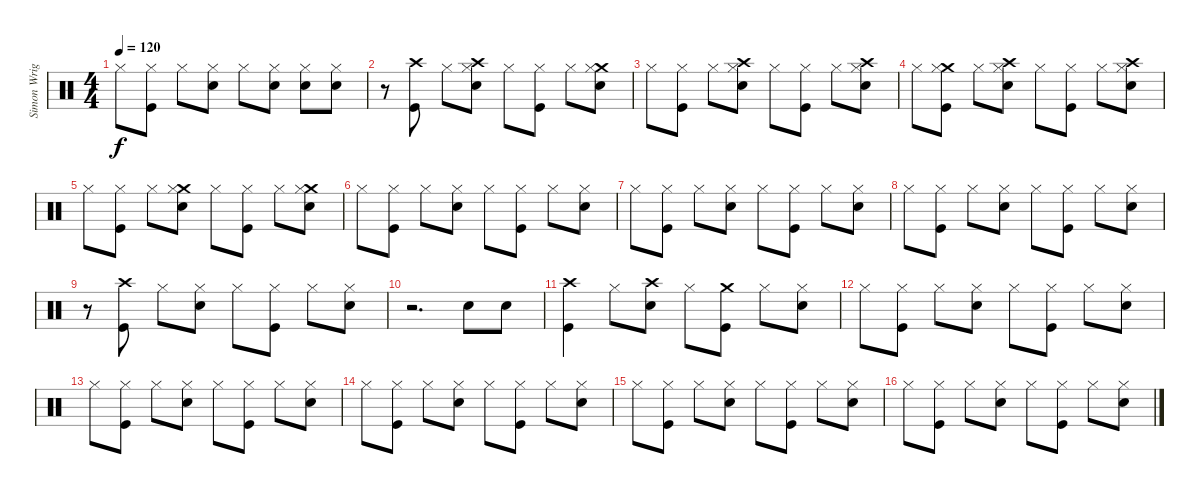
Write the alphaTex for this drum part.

\track ("Simon Wright" "Simon Wrig") {instrument percussion}
\staff {score}
\articulation defaults
\ts (4 4)
\tempo 120
\clef neutral
\ks c "Hi-Hat (closed)".8{dy f}
("Hi-Hat (closed)" "Kick (hit)").8 "Hi-Hat (closed)".8 ("Hi-Hat (closed)" "Electric Snare (hit)").8 "Hi-Hat (closed)".8 ("Hi-Hat (closed)" "Electric Snare (hit)").8 ("Hi-Hat (closed)" "Electric Snare (hit)").8 ("Hi-Hat (closed)" "Electric Snare (hit)").8 |
r.8 ("Crash high (hit)" "Kick (hit)").8 "Hi-Hat (closed)".8 ("Crash high (hit)" "Hi-Hat (closed)" "Electric Snare (hit)").8 "Hi-Hat (closed)".8 ("Hi-Hat (closed)" "Kick (hit)").8 "Hi-Hat (closed)".8 ("Crash medium (hit)" "Hi-Hat (closed)" "Electric Snare (hit)").8 |
"Hi-Hat (closed)".8 ("Hi-Hat (closed)" "Kick (hit)").8 "Hi-Hat (closed)".8 ("Crash high (hit)" "Hi-Hat (closed)" "Electric Snare (hit)").8 "Hi-Hat (closed)".8 ("Hi-Hat (closed)" "Kick (hit)").8 "Hi-Hat (closed)".8 ("Crash high (hit)" "Hi-Hat (closed)" "Electric Snare (hit)").8 |
"Hi-Hat (closed)".8 ("Crash medium (hit)" "Hi-Hat (closed)" "Kick (hit)").8 "Hi-Hat (closed)".8 ("Crash high (hit)" "Hi-Hat (closed)" "Electric Snare (hit)").8 "Hi-Hat (closed)".8 ("Hi-Hat (closed)" "Kick (hit)").8 "Hi-Hat (closed)".8 ("Crash high (hit)" "Hi-Hat (closed)" "Electric Snare (hit)").8 |
"Hi-Hat (closed)".8 ("Hi-Hat (closed)" "Kick (hit)").8 "Hi-Hat (closed)".8 ("Crash medium (hit)" "Hi-Hat (closed)" "Electric Snare (hit)").8 "Hi-Hat (closed)".8 ("Hi-Hat (closed)" "Kick (hit)").8 "Hi-Hat (closed)".8 ("Crash medium (hit)" "Hi-Hat (closed)" "Electric Snare (hit)").8 |
"Hi-Hat (closed)".8 ("Hi-Hat (closed)" "Kick (hit)").8 "Hi-Hat (closed)".8 ("Hi-Hat (closed)" "Electric Snare (hit)").8 "Hi-Hat (closed)".8 ("Hi-Hat (closed)" "Kick (hit)").8 "Hi-Hat (closed)".8 ("Hi-Hat (closed)" "Electric Snare (hit)").8 |
"Hi-Hat (closed)".8 ("Hi-Hat (closed)" "Kick (hit)").8 "Hi-Hat (closed)".8 ("Hi-Hat (closed)" "Electric Snare (hit)").8 "Hi-Hat (closed)".8 ("Hi-Hat (closed)" "Kick (hit)").8 "Hi-Hat (closed)".8 ("Hi-Hat (closed)" "Electric Snare (hit)").8 |
"Hi-Hat (closed)".8 ("Hi-Hat (closed)" "Kick (hit)").8 "Hi-Hat (closed)".8 ("Hi-Hat (closed)" "Electric Snare (hit)").8 "Hi-Hat (closed)".8 ("Hi-Hat (closed)" "Kick (hit)").8 "Hi-Hat (closed)".8 ("Hi-Hat (closed)" "Electric Snare (hit)").8 |
r.8 ("Crash high (hit)" "Kick (hit)").8 "Hi-Hat (closed)".8 ("Hi-Hat (closed)" "Electric Snare (hit)").8 "Hi-Hat (closed)".8 ("Hi-Hat (closed)" "Kick (hit)").8 "Hi-Hat (closed)".8 ("Hi-Hat (closed)" "Electric Snare (hit)").8 |
r.2{d} "Electric Snare (hit)".8 "Electric Snare (hit)".8 |
("Crash high (hit)" "Kick (hit)").4 "Hi-Hat (closed)".8 ("Crash high (hit)" "Electric Snare (hit)").8 "Hi-Hat (closed)".8 ("Crash medium (hit)" "Kick (hit)").8 "Hi-Hat (closed)".8 ("Hi-Hat (closed)" "Electric Snare (hit)").8 |
"Hi-Hat (closed)".8 ("Hi-Hat (closed)" "Kick (hit)").8 "Hi-Hat (closed)".8 ("Hi-Hat (closed)" "Electric Snare (hit)").8 "Hi-Hat (closed)".8 ("Hi-Hat (closed)" "Kick (hit)").8 "Hi-Hat (closed)".8 ("Hi-Hat (closed)" "Electric Snare (hit)").8 |
"Hi-Hat (closed)".8 ("Hi-Hat (closed)" "Kick (hit)").8 "Hi-Hat (closed)".8 ("Hi-Hat (closed)" "Electric Snare (hit)").8 "Hi-Hat (closed)".8 ("Hi-Hat (closed)" "Kick (hit)").8 "Hi-Hat (closed)".8 ("Hi-Hat (closed)" "Electric Snare (hit)").8 |
"Hi-Hat (closed)".8 ("Hi-Hat (closed)" "Kick (hit)").8 "Hi-Hat (closed)".8 ("Hi-Hat (closed)" "Electric Snare (hit)").8 "Hi-Hat (closed)".8 ("Hi-Hat (closed)" "Kick (hit)").8 "Hi-Hat (closed)".8 ("Hi-Hat (closed)" "Electric Snare (hit)").8 |
"Hi-Hat (closed)".8 ("Hi-Hat (closed)" "Kick (hit)").8 "Hi-Hat (closed)".8 ("Hi-Hat (closed)" "Electric Snare (hit)").8 "Hi-Hat (closed)".8 ("Hi-Hat (closed)" "Kick (hit)").8 "Hi-Hat (closed)".8 ("Hi-Hat (closed)" "Electric Snare (hit)").8 |
"Hi-Hat (closed)".8 ("Hi-Hat (closed)" "Kick (hit)").8 "Hi-Hat (closed)".8 ("Hi-Hat (closed)" "Electric Snare (hit)").8 "Hi-Hat (closed)".8 ("Hi-Hat (closed)" "Kick (hit)").8 "Hi-Hat (closed)".8 ("Hi-Hat (closed)" "Electric Snare (hit)").8
